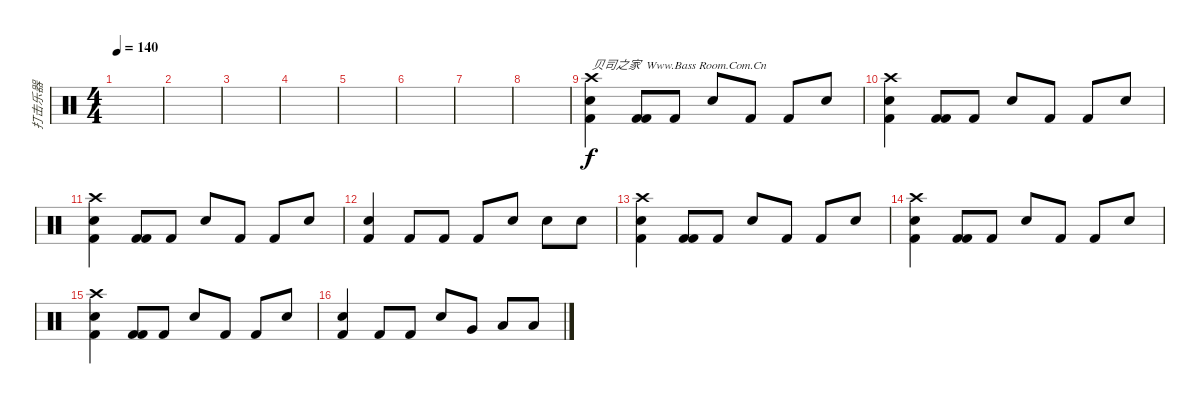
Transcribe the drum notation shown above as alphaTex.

\track ("打击乐器" "打击乐器") {instrument percussion}
\staff {score}
\articulation defaults
\ts (4 4)
\tempo 140
\clef neutral
\ks c
|
|
|
|
|
|
|
|
("Crash high (hit)" "Snare (hit) 2" "Kick (hit) 2").4{txt "贝司之家  Www.Bass Room.Com.Cn"} ("Kick (hit) 2" "Kick (hit) 2").8 "Kick (hit) 2".8 "Snare (hit) 2".8 "Kick (hit) 2".8 "Kick (hit) 2".8 "Snare (hit) 2".8 |
("Crash high (hit)" "Snare (hit) 2" "Kick (hit) 2").4 ("Kick (hit) 2" "Kick (hit) 2").8 "Kick (hit) 2".8 "Snare (hit) 2".8 "Kick (hit) 2".8 "Kick (hit) 2".8 "Snare (hit) 2".8 |
("Crash high (hit)" "Snare (hit) 2" "Kick (hit) 2").4 ("Kick (hit) 2" "Kick (hit) 2").8 "Kick (hit) 2".8 "Snare (hit) 2".8 "Kick (hit) 2".8 "Kick (hit) 2".8 "Snare (hit) 2".8 |
("Kick (hit) 2" "Snare (hit) 2").4 "Kick (hit) 2".8 "Kick (hit) 2".8 "Kick (hit) 2".8 "Snare (hit) 2".8 "Snare (hit) 2".8 "Snare (hit) 2".8 |
("Crash high (hit)" "Snare (hit) 2" "Kick (hit) 2").4 ("Kick (hit) 2" "Kick (hit) 2").8 "Kick (hit) 2".8 "Snare (hit) 2".8 "Kick (hit) 2".8 "Kick (hit) 2".8 "Snare (hit) 2".8 |
("Crash high (hit)" "Snare (hit) 2" "Kick (hit) 2").4 ("Kick (hit) 2" "Kick (hit) 2").8 "Kick (hit) 2".8 "Snare (hit) 2".8 "Kick (hit) 2".8 "Kick (hit) 2".8 "Snare (hit) 2".8 |
("Crash high (hit)" "Snare (hit) 2" "Kick (hit) 2").4 ("Kick (hit) 2" "Kick (hit) 2").8 "Kick (hit) 2".8 "Snare (hit) 2".8 "Kick (hit) 2".8 "Kick (hit) 2".8 "Snare (hit) 2".8 |
("Kick (hit) 2" "Snare (hit) 2").4 "Kick (hit) 2".8 "Kick (hit) 2".8 "Snare (hit) 2".8 "Very Low Tom (hit)".8 "Low Tom (hit)".8 "Low Floor Tom (hit)".8
